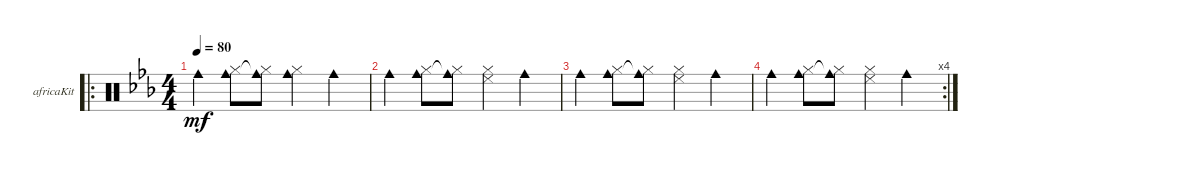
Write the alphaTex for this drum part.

\defaultSystemsLayout 4
\bracketExtendMode groupsimilarinstruments
\firstSystemTrackNameOrientation horizontal
\otherSystemsTrackNameOrientation horizontal
\track ("Kit-Africa" "africaKit") {instrument percussion}
\staff {score}
\articulation defaults
\ro
\ts (4 4)
\tempo 80
\clef neutral
\scale
0.547619
\ks eb "Cowbell medium (hit)".4{dy mf}
("Cowbell medium (hit)" "Cowbell high (tip)").8 ("Cowbell medium (hit)"{t} "Cowbell high (tip)").8 ("Cowbell high (tip)" "Cowbell medium (hit)").4 "Cowbell medium (hit)".4 |
\scale
0.22619 "Cowbell medium (hit)".4 ("Cowbell medium (hit)" "Cowbell high (tip)").8 ("Cowbell medium (hit)"{t} "Cowbell high (tip)").8 ("Cowbell high (tip)" "Cowbell low (tip)").4 "Cowbell medium (hit)".4 |
\scale
0.22619 "Cowbell medium (hit)".4 ("Cowbell medium (hit)" "Cowbell high (tip)").8 ("Cowbell medium (hit)"{t} "Cowbell high (tip)").8 ("Cowbell high (tip)" "Cowbell low (tip)").4 "Cowbell medium (hit)".4 |
\rc 4 "Cowbell medium (hit)".4
("Cowbell medium (hit)" "Cowbell high (tip)").8 ("Cowbell medium (hit)"{t} "Cowbell high (tip)").8 ("Cowbell high (tip)" "Cowbell low (tip)").4 "Cowbell medium (hit)".4
